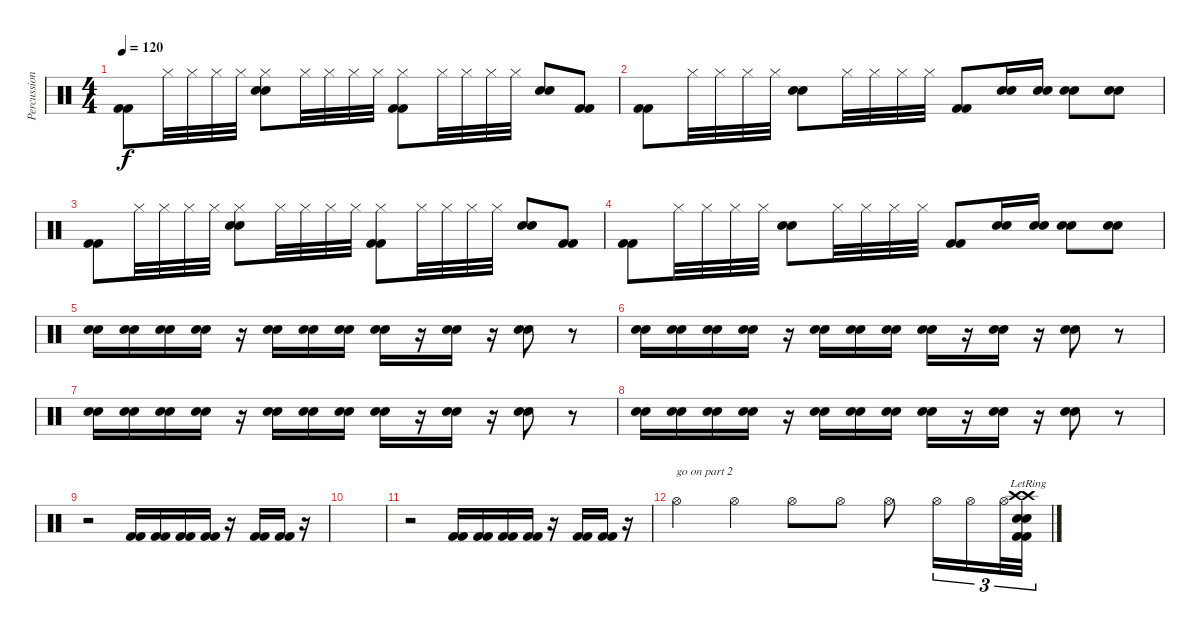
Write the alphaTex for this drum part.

\track ("Percussions" "Percussion") {instrument percussion}
\staff {score}
\articulation defaults
\ts (4 4)
\tempo 120
\clef neutral
\ks c
("Kick (hit) 2" "Kick (hit) 2").8{dy f} "Hi-Hat (closed)".32 "Hi-Hat (closed)".32 "Hi-Hat (closed)".32 "Hi-Hat (closed)".32 ("Electric Snare (hit)" "Electric Snare (hit)" "Hi-Hat (closed)").8 "Hi-Hat (closed)".32 "Hi-Hat (closed)".32 "Hi-Hat (closed)".32 "Hi-Hat (closed)".32 ("Kick (hit) 2" "Kick (hit) 2" "Hi-Hat (closed)").8 "Hi-Hat (closed)".32 "Hi-Hat (closed)".32 "Hi-Hat (closed)".32 "Hi-Hat (closed)".32 ("Electric Snare (hit)" "Electric Snare (hit)").8 ("Kick (hit) 2" "Kick (hit) 2").8 |
("Kick (hit) 2" "Kick (hit) 2").8 "Hi-Hat (closed)".32 "Hi-Hat (closed)".32 "Hi-Hat (closed)".32 "Hi-Hat (closed)".32 ("Electric Snare (hit)" "Electric Snare (hit)").8 "Hi-Hat (closed)".32 "Hi-Hat (closed)".32 "Hi-Hat (closed)".32 "Hi-Hat (closed)".32 ("Kick (hit) 2" "Kick (hit) 2").8 ("Electric Snare (hit)" "Electric Snare (hit)").16 ("Electric Snare (hit)" "Electric Snare (hit)").16 ("Electric Snare (hit)" "Electric Snare (hit)").8 ("Electric Snare (hit)" "Electric Snare (hit)").8 |
("Kick (hit) 2" "Kick (hit) 2").8 "Hi-Hat (closed)".32 "Hi-Hat (closed)".32 "Hi-Hat (closed)".32 "Hi-Hat (closed)".32 ("Electric Snare (hit)" "Electric Snare (hit)" "Hi-Hat (closed)").8 "Hi-Hat (closed)".32 "Hi-Hat (closed)".32 "Hi-Hat (closed)".32 "Hi-Hat (closed)".32 ("Kick (hit) 2" "Kick (hit) 2" "Hi-Hat (closed)").8 "Hi-Hat (closed)".32 "Hi-Hat (closed)".32 "Hi-Hat (closed)".32 "Hi-Hat (closed)".32 ("Electric Snare (hit)" "Electric Snare (hit)").8 ("Kick (hit) 2" "Kick (hit) 2").8 |
("Kick (hit) 2" "Kick (hit) 2").8 "Hi-Hat (closed)".32 "Hi-Hat (closed)".32 "Hi-Hat (closed)".32 "Hi-Hat (closed)".32 ("Electric Snare (hit)" "Electric Snare (hit)").8 "Hi-Hat (closed)".32 "Hi-Hat (closed)".32 "Hi-Hat (closed)".32 "Hi-Hat (closed)".32 ("Kick (hit) 2" "Kick (hit) 2").8 ("Electric Snare (hit)" "Electric Snare (hit)").16 ("Electric Snare (hit)" "Electric Snare (hit)").16 ("Electric Snare (hit)" "Electric Snare (hit)").8 ("Electric Snare (hit)" "Electric Snare (hit)").8 |
("Electric Snare (hit)" "Electric Snare (hit)").16 ("Electric Snare (hit)" "Electric Snare (hit)").16 ("Electric Snare (hit)" "Electric Snare (hit)").16 ("Electric Snare (hit)" "Electric Snare (hit)").16 r.16 ("Electric Snare (hit)" "Electric Snare (hit)").16 ("Electric Snare (hit)" "Electric Snare (hit)").16 ("Electric Snare (hit)" "Electric Snare (hit)").16 ("Electric Snare (hit)" "Electric Snare (hit)").16 r.16 ("Electric Snare (hit)" "Electric Snare (hit)").16 r.16 ("Electric Snare (hit)" "Electric Snare (hit)").8 r.8 |
("Electric Snare (hit)" "Electric Snare (hit)").16 ("Electric Snare (hit)" "Electric Snare (hit)").16 ("Electric Snare (hit)" "Electric Snare (hit)").16 ("Electric Snare (hit)" "Electric Snare (hit)").16 r.16 ("Electric Snare (hit)" "Electric Snare (hit)").16 ("Electric Snare (hit)" "Electric Snare (hit)").16 ("Electric Snare (hit)" "Electric Snare (hit)").16 ("Electric Snare (hit)" "Electric Snare (hit)").16 r.16 ("Electric Snare (hit)" "Electric Snare (hit)").16 r.16 ("Electric Snare (hit)" "Electric Snare (hit)").8 r.8 |
("Electric Snare (hit)" "Electric Snare (hit)").16 ("Electric Snare (hit)" "Electric Snare (hit)").16 ("Electric Snare (hit)" "Electric Snare (hit)").16 ("Electric Snare (hit)" "Electric Snare (hit)").16 r.16 ("Electric Snare (hit)" "Electric Snare (hit)").16 ("Electric Snare (hit)" "Electric Snare (hit)").16 ("Electric Snare (hit)" "Electric Snare (hit)").16 ("Electric Snare (hit)" "Electric Snare (hit)").16 r.16 ("Electric Snare (hit)" "Electric Snare (hit)").16 r.16 ("Electric Snare (hit)" "Electric Snare (hit)").8 r.8 |
("Electric Snare (hit)" "Electric Snare (hit)").16 ("Electric Snare (hit)" "Electric Snare (hit)").16 ("Electric Snare (hit)" "Electric Snare (hit)").16 ("Electric Snare (hit)" "Electric Snare (hit)").16 r.16 ("Electric Snare (hit)" "Electric Snare (hit)").16 ("Electric Snare (hit)" "Electric Snare (hit)").16 ("Electric Snare (hit)" "Electric Snare (hit)").16 ("Electric Snare (hit)" "Electric Snare (hit)").16 r.16 ("Electric Snare (hit)" "Electric Snare (hit)").16 r.16 ("Electric Snare (hit)" "Electric Snare (hit)").8 r.8 |
r.2 ("Kick (hit) 2" "Kick (hit) 2").16 ("Kick (hit) 2" "Kick (hit) 2").16 ("Kick (hit) 2" "Kick (hit) 2").16 ("Kick (hit) 2" "Kick (hit) 2").16 r.16 ("Kick (hit) 2" "Kick (hit) 2").16 ("Kick (hit) 2" "Kick (hit) 2").16 r.16 |
|
r.2 ("Kick (hit) 2" "Kick (hit) 2").16 ("Kick (hit) 2" "Kick (hit) 2").16 ("Kick (hit) 2" "Kick (hit) 2").16 ("Kick (hit) 2" "Kick (hit) 2").16 r.16 ("Kick (hit) 2" "Kick (hit) 2").16 ("Kick (hit) 2" "Kick (hit) 2").16 r.16 |
"Hi-Hat (open)".4{txt "go on part 2"} "Hi-Hat (open)".4 "Hi-Hat (open)".8 "Hi-Hat (open)".8 "Hi-Hat (open)".8 "Hi-Hat (open)".16{tu (3 2)} "Hi-Hat (open)".16{tu (3 2)} "Hi-Hat (open)".32{tu (3 2)} ("Kick (hit) 2" "Kick (hit) 2" "Crash high (hit)"{lr} "Crash high (hit)" "Electric Snare (hit)" "Electric Snare (hit)").32{tu (3 2)}
